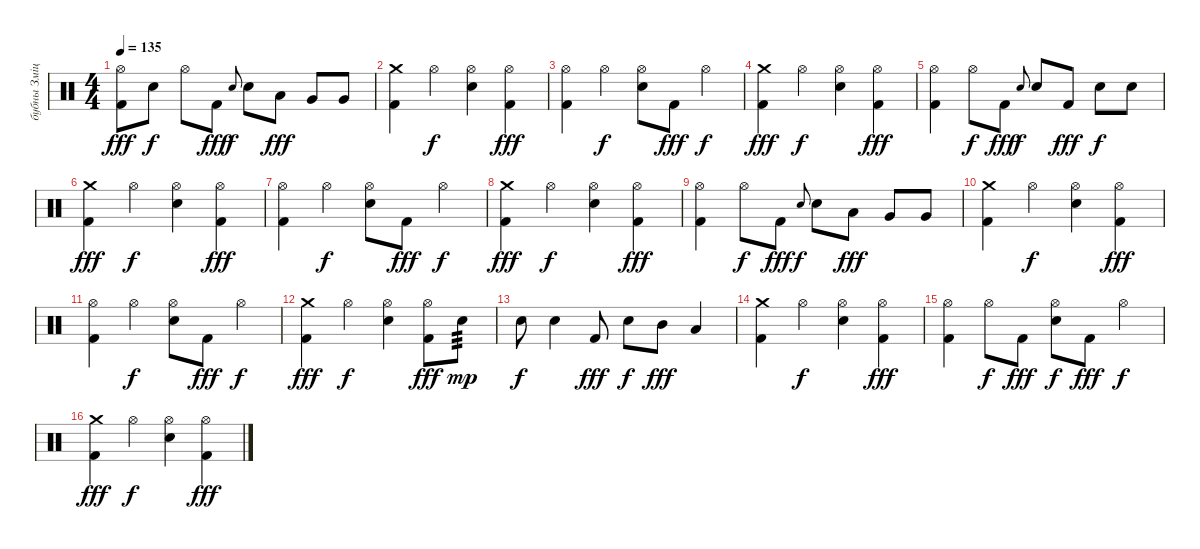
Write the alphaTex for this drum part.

\track ("бубны Змiцер" "бубны Змiц") {solo instrument percussion}
\staff {score}
\articulation defaults
\ts (4 4)
\tempo 135
\clef neutral
\ks c
("Hi-Hat (open)" "Kick (hit) 2").8{dy fff} "Electric Snare (hit)".8{dy f} "Hi-Hat (open)".8 "Kick (hit) 2".8{dy fff} "Electric Snare (hit)".8{gr onbeat dy f} "Electric Snare (hit)".8 "Low Tom (hit)".8{dy fff} "Very Low Tom (hit)".8 "Very Low Tom (hit)".8 |
("Crash medium (hit)" "Kick (hit) 2").4 "Hi-Hat (open)".4{dy f} ("Hi-Hat (open)" "Electric Snare (hit)").4 ("Hi-Hat (open)" "Kick (hit) 2").4{dy fff} |
("Hi-Hat (open)" "Kick (hit) 2").4 "Hi-Hat (open)".4{dy f} ("Hi-Hat (open)" "Electric Snare (hit)").8 "Kick (hit) 2".8{dy fff} "Hi-Hat (open)".4{dy f} |
("Crash medium (hit)" "Kick (hit) 2").4{dy fff} "Hi-Hat (open)".4{dy f} ("Hi-Hat (open)" "Electric Snare (hit)").4 ("Hi-Hat (open)" "Kick (hit) 2").4{dy fff} |
("Hi-Hat (open)" "Kick (hit) 2").4 "Hi-Hat (open)".8{dy f} "Kick (hit) 2".8{dy fff} "Electric Snare (hit)".8{gr onbeat dy f} "Electric Snare (hit)".8 "Kick (hit) 2".8{dy fff} "Electric Snare (hit)".8{dy f} "Electric Snare (hit)".8 |
("Crash medium (hit)" "Kick (hit) 2").4{dy fff} "Hi-Hat (open)".4{dy f} ("Hi-Hat (open)" "Electric Snare (hit)").4 ("Hi-Hat (open)" "Kick (hit) 2").4{dy fff} |
("Hi-Hat (open)" "Kick (hit) 2").4 "Hi-Hat (open)".4{dy f} ("Hi-Hat (open)" "Electric Snare (hit)").8 "Kick (hit) 2".8{dy fff} "Hi-Hat (open)".4{dy f} |
("Crash medium (hit)" "Kick (hit) 2").4{dy fff} "Hi-Hat (open)".4{dy f} ("Hi-Hat (open)" "Electric Snare (hit)").4 ("Hi-Hat (open)" "Kick (hit) 2").4{dy fff} |
("Hi-Hat (open)" "Kick (hit) 2").4 "Hi-Hat (open)".8{dy f} "Kick (hit) 2".8{dy fff} "Electric Snare (hit)".8{gr onbeat dy f} "Electric Snare (hit)".8 "Low Tom (hit)".8{dy fff} "Very Low Tom (hit)".8 "Very Low Tom (hit)".8 |
("Crash medium (hit)" "Kick (hit) 2").4 "Hi-Hat (open)".4{dy f} ("Hi-Hat (open)" "Electric Snare (hit)").4 ("Hi-Hat (open)" "Kick (hit) 2").4{dy fff} |
("Hi-Hat (open)" "Kick (hit) 2").4 "Hi-Hat (open)".4{dy f} ("Hi-Hat (open)" "Electric Snare (hit)").8 "Kick (hit) 2".8{dy fff} "Hi-Hat (open)".4{dy f} |
("Crash medium (hit)" "Kick (hit) 2").4{dy fff} "Hi-Hat (open)".4{dy f} ("Hi-Hat (open)" "Electric Snare (hit)").4 ("Hi-Hat (open)" "Kick (hit) 2").8{dy fff} "Electric Snare (hit)".8{tp 3 dy mp} |
"Electric Snare (hit)".8{dy f} "Electric Snare (hit)".4 "Kick (hit) 2".8{dy fff} "Electric Snare (hit)".8{dy f} "Mid Tom (hit)".8{dy fff} "Low Tom (hit)".4 |
("Crash medium (hit)" "Kick (hit) 2").4 "Hi-Hat (open)".4{dy f} ("Hi-Hat (open)" "Electric Snare (hit)").4 ("Hi-Hat (open)" "Kick (hit) 2").4{dy fff} |
("Hi-Hat (open)" "Kick (hit) 2").4 "Hi-Hat (open)".8{dy f} "Kick (hit) 2".8{dy fff} ("Hi-Hat (open)" "Electric Snare (hit)").8{dy f} "Kick (hit) 2".8{dy fff} "Hi-Hat (open)".4{dy f} |
("Crash medium (hit)" "Kick (hit) 2").4{dy fff} "Hi-Hat (open)".4{dy f} ("Hi-Hat (open)" "Electric Snare (hit)").4 ("Hi-Hat (open)" "Kick (hit) 2").4{dy fff}
